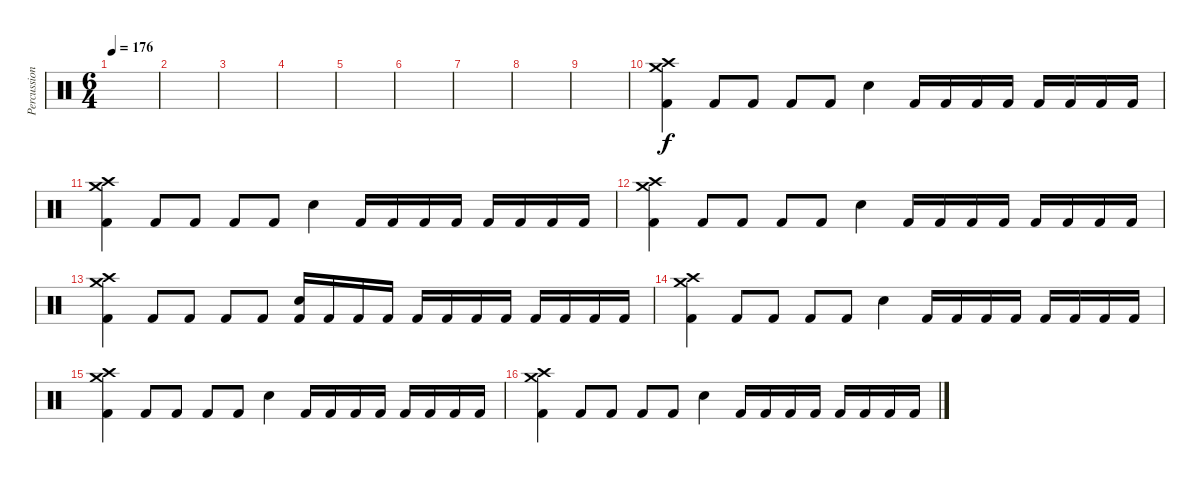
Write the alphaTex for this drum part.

\track ("Percussion" "Percussion") {instrument percussion}
\staff {score}
\articulation defaults
\ts (6 4)
\tempo 176
\clef neutral
\ks c
|
|
|
|
|
|
|
|
|
("Crash high (hit)" "Crash medium (hit)" "Kick (hit) 2").4 "Kick (hit) 2".8 "Kick (hit) 2".8 "Kick (hit) 2".8 "Kick (hit) 2".8 "Snare (hit) 2".4 "Kick (hit) 2".16 "Kick (hit) 2".16 "Kick (hit) 2".16 "Kick (hit) 2".16 "Kick (hit) 2".16 "Kick (hit) 2".16 "Kick (hit) 2".16 "Kick (hit) 2".16 |
("Crash high (hit)" "Crash medium (hit)" "Kick (hit) 2").4 "Kick (hit) 2".8 "Kick (hit) 2".8 "Kick (hit) 2".8 "Kick (hit) 2".8 "Snare (hit) 2".4 "Kick (hit) 2".16 "Kick (hit) 2".16 "Kick (hit) 2".16 "Kick (hit) 2".16 "Kick (hit) 2".16 "Kick (hit) 2".16 "Kick (hit) 2".16 "Kick (hit) 2".16 |
("Crash high (hit)" "Crash medium (hit)" "Kick (hit) 2").4 "Kick (hit) 2".8 "Kick (hit) 2".8 "Kick (hit) 2".8 "Kick (hit) 2".8 "Snare (hit) 2".4 "Kick (hit) 2".16 "Kick (hit) 2".16 "Kick (hit) 2".16 "Kick (hit) 2".16 "Kick (hit) 2".16 "Kick (hit) 2".16 "Kick (hit) 2".16 "Kick (hit) 2".16 |
("Crash high (hit)" "Crash medium (hit)" "Kick (hit) 2").4 "Kick (hit) 2".8 "Kick (hit) 2".8 "Kick (hit) 2".8 "Kick (hit) 2".8 ("Snare (hit) 2" "Kick (hit) 2").16 "Kick (hit) 2".16 "Kick (hit) 2".16 "Kick (hit) 2".16 "Kick (hit) 2".16 "Kick (hit) 2".16 "Kick (hit) 2".16 "Kick (hit) 2".16 "Kick (hit) 2".16 "Kick (hit) 2".16 "Kick (hit) 2".16 "Kick (hit) 2".16 |
("Crash high (hit)" "Crash medium (hit)" "Kick (hit) 2").4 "Kick (hit) 2".8 "Kick (hit) 2".8 "Kick (hit) 2".8 "Kick (hit) 2".8 "Snare (hit) 2".4 "Kick (hit) 2".16 "Kick (hit) 2".16 "Kick (hit) 2".16 "Kick (hit) 2".16 "Kick (hit) 2".16 "Kick (hit) 2".16 "Kick (hit) 2".16 "Kick (hit) 2".16 |
("Crash high (hit)" "Crash medium (hit)" "Kick (hit) 2").4 "Kick (hit) 2".8 "Kick (hit) 2".8 "Kick (hit) 2".8 "Kick (hit) 2".8 "Snare (hit) 2".4 "Kick (hit) 2".16 "Kick (hit) 2".16 "Kick (hit) 2".16 "Kick (hit) 2".16 "Kick (hit) 2".16 "Kick (hit) 2".16 "Kick (hit) 2".16 "Kick (hit) 2".16 |
("Crash high (hit)" "Crash medium (hit)" "Kick (hit) 2").4 "Kick (hit) 2".8 "Kick (hit) 2".8 "Kick (hit) 2".8 "Kick (hit) 2".8 "Snare (hit) 2".4 "Kick (hit) 2".16 "Kick (hit) 2".16 "Kick (hit) 2".16 "Kick (hit) 2".16 "Kick (hit) 2".16 "Kick (hit) 2".16 "Kick (hit) 2".16 "Kick (hit) 2".16
